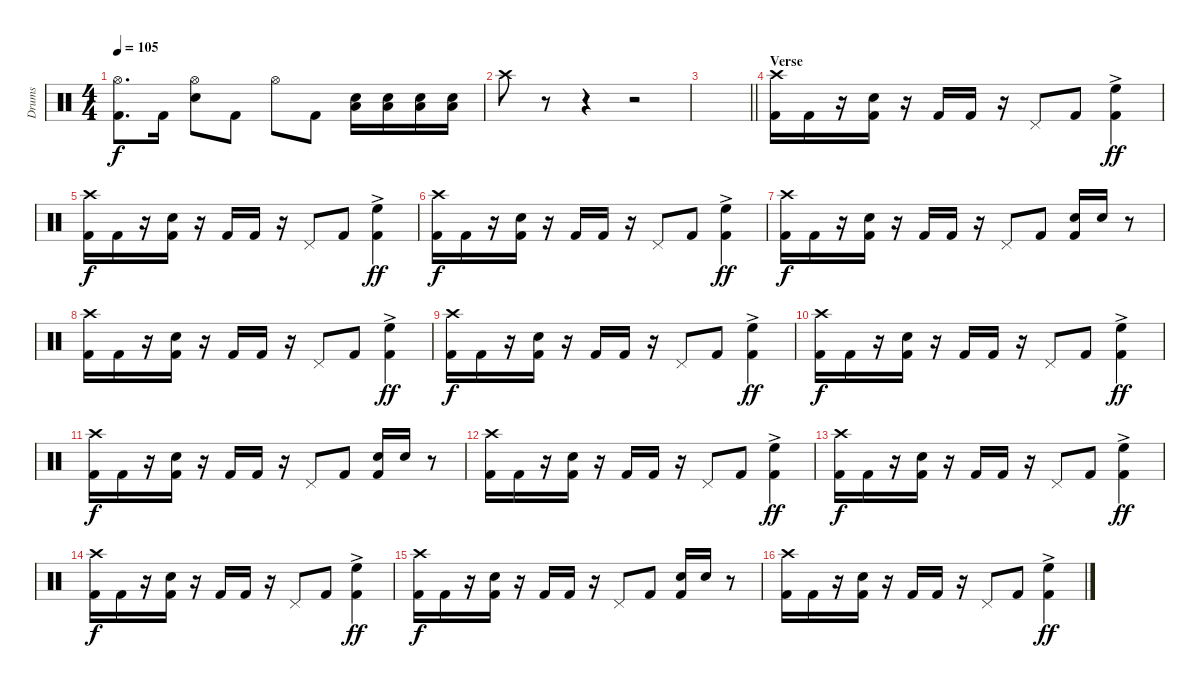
\track ("Drums" "Drums") {instrument percussion}
\staff {score}
\articulation defaults
\ts (4 4)
\tempo 105
\clef neutral
\ks aminor
("Hi-Hat (open)" "Kick (hit) 2").8{d dy f} "Kick (hit) 2".16 ("Snare (hit) 2" "Hi-Hat (open)").8 "Kick (hit) 2".8 "Hi-Hat (open)".8 "Kick (hit) 2".8 ("Snare (hit) 2" "Low Floor Tom (hit)").16 ("Snare (hit) 2" "Low Floor Tom (hit)").16 ("Snare (hit) 2" "Low Floor Tom (hit)").16 ("Snare (hit) 2" "Low Floor Tom (hit)").16 |
"Crash high (hit)".8 r.8 r.4 r.2 |
\barLineRight lightlight
|
\section ("" "Verse")
("Crash high (hit)" "Kick (hit) 2").16{volume 13} "Kick (hit) 2".16 r.16 ("Snare (hit) 2" "Kick (hit) 2").16 r.16 "Kick (hit) 2".16 "Kick (hit) 2".16 r.16 "Pedal Hi-Hat (hit)".8 "Kick (hit) 2".8 ("High Floor Tom (hit)"{ac} "Kick (hit) 2").4{dy ff} |
("Crash high (hit)" "Kick (hit) 2").16{dy f} "Kick (hit) 2".16 r.16 ("Snare (hit) 2" "Kick (hit) 2").16 r.16 "Kick (hit) 2".16 "Kick (hit) 2".16 r.16 "Pedal Hi-Hat (hit)".8 "Kick (hit) 2".8 ("High Floor Tom (hit)"{ac} "Kick (hit) 2").4{dy ff} |
("Crash high (hit)" "Kick (hit) 2").16{dy f} "Kick (hit) 2".16 r.16 ("Snare (hit) 2" "Kick (hit) 2").16 r.16 "Kick (hit) 2".16 "Kick (hit) 2".16 r.16 "Pedal Hi-Hat (hit)".8 "Kick (hit) 2".8 ("High Floor Tom (hit)"{ac} "Kick (hit) 2").4{dy ff} |
("Crash high (hit)" "Kick (hit) 2").16{dy f} "Kick (hit) 2".16 r.16 ("Snare (hit) 2" "Kick (hit) 2").16 r.16 "Kick (hit) 2".16 "Kick (hit) 2".16 r.16 "Pedal Hi-Hat (hit)".8 "Kick (hit) 2".8 ("Snare (hit) 2" "Kick (hit) 2").16 "Snare (hit) 2".16 r.8 |
("Crash high (hit)" "Kick (hit) 2").16{volume 13} "Kick (hit) 2".16 r.16 ("Snare (hit) 2" "Kick (hit) 2").16 r.16 "Kick (hit) 2".16 "Kick (hit) 2".16 r.16 "Pedal Hi-Hat (hit)".8 "Kick (hit) 2".8 ("High Floor Tom (hit)"{ac} "Kick (hit) 2").4{dy ff} |
("Crash high (hit)" "Kick (hit) 2").16{dy f} "Kick (hit) 2".16 r.16 ("Snare (hit) 2" "Kick (hit) 2").16 r.16 "Kick (hit) 2".16 "Kick (hit) 2".16 r.16 "Pedal Hi-Hat (hit)".8 "Kick (hit) 2".8 ("High Floor Tom (hit)"{ac} "Kick (hit) 2").4{dy ff} |
("Crash high (hit)" "Kick (hit) 2").16{dy f} "Kick (hit) 2".16 r.16 ("Snare (hit) 2" "Kick (hit) 2").16 r.16 "Kick (hit) 2".16 "Kick (hit) 2".16 r.16 "Pedal Hi-Hat (hit)".8 "Kick (hit) 2".8 ("High Floor Tom (hit)"{ac} "Kick (hit) 2").4{dy ff} |
("Crash high (hit)" "Kick (hit) 2").16{dy f} "Kick (hit) 2".16 r.16 ("Snare (hit) 2" "Kick (hit) 2").16 r.16 "Kick (hit) 2".16 "Kick (hit) 2".16 r.16 "Pedal Hi-Hat (hit)".8 "Kick (hit) 2".8 ("Snare (hit) 2" "Kick (hit) 2").16 "Snare (hit) 2".16 r.8 |
("Crash high (hit)" "Kick (hit) 2").16{volume 13} "Kick (hit) 2".16 r.16 ("Snare (hit) 2" "Kick (hit) 2").16 r.16 "Kick (hit) 2".16 "Kick (hit) 2".16 r.16 "Pedal Hi-Hat (hit)".8 "Kick (hit) 2".8 ("High Floor Tom (hit)"{ac} "Kick (hit) 2").4{dy ff} |
("Crash high (hit)" "Kick (hit) 2").16{dy f} "Kick (hit) 2".16 r.16 ("Snare (hit) 2" "Kick (hit) 2").16 r.16 "Kick (hit) 2".16 "Kick (hit) 2".16 r.16 "Pedal Hi-Hat (hit)".8 "Kick (hit) 2".8 ("High Floor Tom (hit)"{ac} "Kick (hit) 2").4{dy ff} |
("Crash high (hit)" "Kick (hit) 2").16{dy f} "Kick (hit) 2".16 r.16 ("Snare (hit) 2" "Kick (hit) 2").16 r.16 "Kick (hit) 2".16 "Kick (hit) 2".16 r.16 "Pedal Hi-Hat (hit)".8 "Kick (hit) 2".8 ("High Floor Tom (hit)"{ac} "Kick (hit) 2").4{dy ff} |
("Crash high (hit)" "Kick (hit) 2").16{dy f} "Kick (hit) 2".16 r.16 ("Snare (hit) 2" "Kick (hit) 2").16 r.16 "Kick (hit) 2".16 "Kick (hit) 2".16 r.16 "Pedal Hi-Hat (hit)".8 "Kick (hit) 2".8 ("Snare (hit) 2" "Kick (hit) 2").16 "Snare (hit) 2".16 r.8 |
("Crash high (hit)" "Kick (hit) 2").16 "Kick (hit) 2".16 r.16 ("Snare (hit) 2" "Kick (hit) 2").16 r.16 "Kick (hit) 2".16 "Kick (hit) 2".16 r.16 "Pedal Hi-Hat (hit)".8 "Kick (hit) 2".8 ("High Floor Tom (hit)"{ac} "Kick (hit) 2").4{dy ff}
